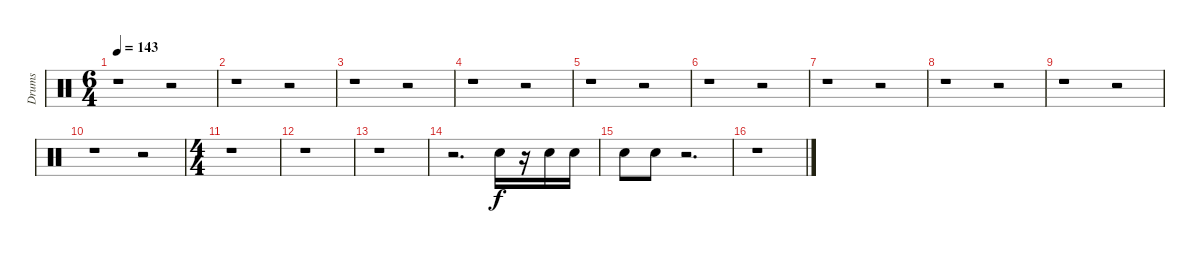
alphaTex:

\track ("Drums" "Drums") {instrument percussion}
\staff {score}
\articulation defaults
\ts (6 4)
\tempo 143
\clef neutral
\ks c
r.1{dy f} r.2 |
r.1 r.2 |
r.1 r.2 |
r.1 r.2 |
r.1 r.2 |
r.1 r.2 |
r.1 r.2 |
r.1 r.2 |
r.1 r.2 |
r.1 r.2 |
\ts (4 4)
r.1 |
r.1 |
r.1 |
r.2{d} "Electric Snare (hit)".16 r.16 "Electric Snare (hit)".16 "Electric Snare (hit)".16 |
"Electric Snare (hit)".8 "Electric Snare (hit)".8 r.2{d} |
r.1
